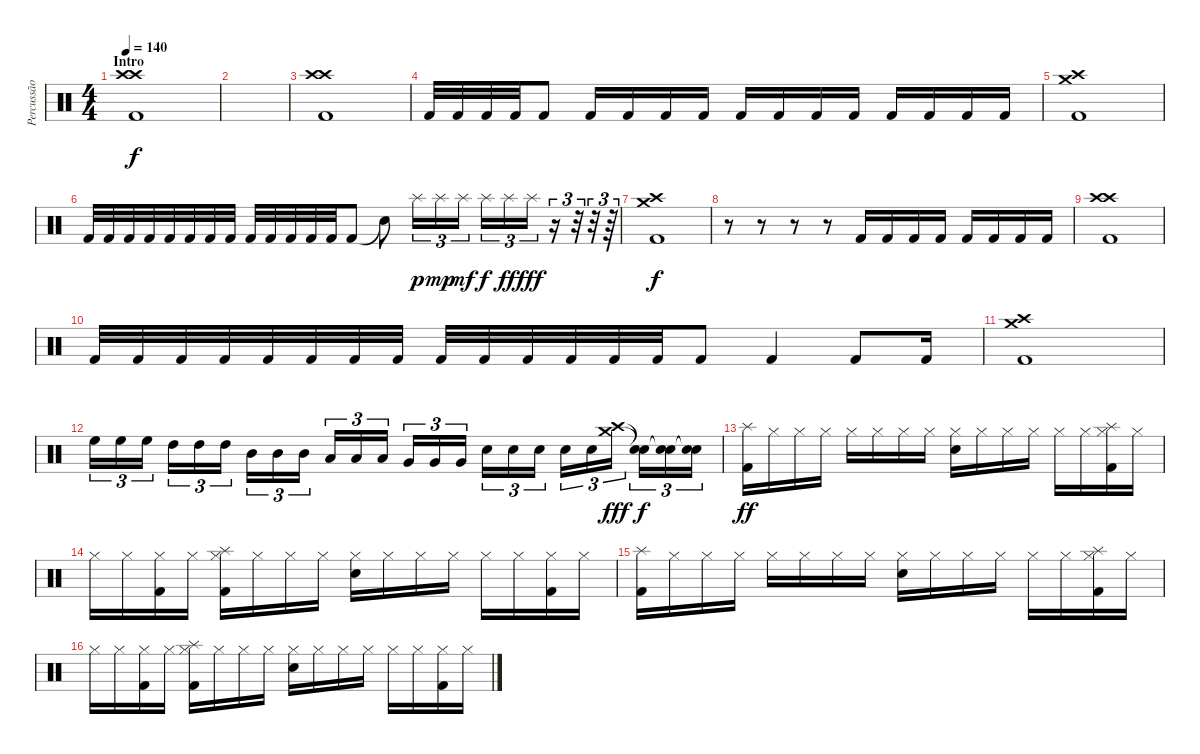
\track ("Percussão (Lucas)" "Percussão ") {instrument percussion}
\staff {score}
\articulation defaults
\ts (4 4)
\section ("" "Intro")
\tempo 140
\clef neutral
\ks c
("Crash high (hit)" "Crash high (hit)" "Kick (hit) 2").1{dy f} |
|
("Crash high (hit)" "Crash high (hit)" "Kick (hit) 2").1 |
"Kick (hit) 2".32 "Kick (hit) 2".32 "Kick (hit) 2".32 "Kick (hit) 2".32 "Kick (hit) 2".8 "Kick (hit) 2".16 "Kick (hit) 2".16 "Kick (hit) 2".16 "Kick (hit) 2".16 "Kick (hit) 2".16 "Kick (hit) 2".16 "Kick (hit) 2".16 "Kick (hit) 2".16 "Kick (hit) 2".16 "Kick (hit) 2".16 "Kick (hit) 2".16 "Kick (hit) 2".16 |
("Crash high (hit)" "Crash medium (hit)" "Kick (hit) 2").1 |
"Kick (hit) 2".32 "Kick (hit) 2".32 "Kick (hit) 2".32 "Kick (hit) 2".32 "Kick (hit) 2".32 "Kick (hit) 2".32 "Kick (hit) 2".32 "Kick (hit) 2".32 "Kick (hit) 2".32 "Kick (hit) 2".32 "Kick (hit) 2".32 "Kick (hit) 2".32 "Kick (hit) 2".32 "Kick (hit) 2".8 "Snare (hit)"{t}.8 "Splash (hit)".16{tu (3 2) dy p} "Splash (hit)".16{tu (3 2) dy mp} "Splash (hit)".16{tu (3 2) dy mf} "Splash (hit)".16{tu (3 2) dy f} "Splash (hit)".16{tu (3 2) dy ff} "Splash (hit)".16{tu (3 2) dy fff} r.16{tu (3 2)} r.32{tu (3 2)} r.32{tu (3 2)} r.64{tu (3 2)} |
("Crash high (hit)" "Crash medium (hit)" "Kick (hit) 2").1{dy f} |
r.8 r.8 r.8 r.8 "Kick (hit) 2".16 "Kick (hit) 2".16 "Kick (hit) 2".16 "Kick (hit) 2".16 "Kick (hit) 2".16 "Kick (hit) 2".16 "Kick (hit) 2".16 "Kick (hit) 2".16 |
("Crash high (hit)" "Crash high (hit)" "Kick (hit) 2").1 |
"Kick (hit) 2".32 "Kick (hit) 2".32 "Kick (hit) 2".32 "Kick (hit) 2".32 "Kick (hit) 2".32 "Kick (hit) 2".32 "Kick (hit) 2".32 "Kick (hit) 2".32 "Kick (hit) 2".32 "Kick (hit) 2".32 "Kick (hit) 2".32 "Kick (hit) 2".32 "Kick (hit) 2".32 "Kick (hit) 2".32 "Kick (hit) 2".8 "Kick (hit) 2".4 "Kick (hit) 2".8 "Kick (hit) 2".16 |
("Crash high (hit)" "Crash medium (hit)" "Kick (hit) 2").1 |
"High Floor Tom (hit)".16{tu (3 2)} "High Floor Tom (hit)".16{tu (3 2)} "High Floor Tom (hit)".16{tu (3 2)} "High Tom (hit)".16{tu (3 2)} "High Tom (hit)".16{tu (3 2)} "High Tom (hit)".16{tu (3 2)} "Mid Tom (hit)".16{tu (3 2)} "Mid Tom (hit)".16{tu (3 2)} "Mid Tom (hit)".16{tu (3 2)} "Low Tom (hit)".16{tu (3 2)} "Low Tom (hit)".16{tu (3 2)} "Low Tom (hit)".16{tu (3 2)} "Very Low Tom (hit)".16{tu (3 2)} "Very Low Tom (hit)".16{tu (3 2)} "Very Low Tom (hit)".16{tu (3 2)} "Electric Snare (hit)".16{tu (3 2)} "Electric Snare (hit)".16{tu (3 2)} "Electric Snare (hit)".16{tu (3 2)} "Electric Snare (hit)".16{tu (3 2)} "Electric Snare (hit)".16{tu (3 2)} ("Crash high (hit)" "Crash medium (hit)").16{tu (3 2) dy fff} ("Snare (hit)"{t} "Snare (hit)"{t}).16{tu (3 2) dy f} ("Snare (hit)"{t} "Snare (hit)"{t}).16{tu (3 2)} ("Snare (hit)"{t} "Snare (hit)"{t}).16{tu (3 2)} |
("Kick (hit) 2" "Splash (hit)").16{dy ff} "Hi-Hat (closed)".16 "Hi-Hat (closed)".16 "Hi-Hat (closed)".16 "Hi-Hat (closed)".16 "Hi-Hat (closed)".16 "Hi-Hat (closed)".16 "Hi-Hat (closed)".16 ("Electric Snare (hit)" "Hi-Hat (closed)").16 "Hi-Hat (closed)".16 "Hi-Hat (closed)".16 "Hi-Hat (closed)".16 "Hi-Hat (closed)".16 "Hi-Hat (closed)".16 ("Kick (hit) 2" "Hi-Hat (closed)" "Splash (hit)").16 "Hi-Hat (closed)".16 |
"Hi-Hat (closed)".16 "Hi-Hat (closed)".16 ("Kick (hit) 2" "Hi-Hat (closed)").16 "Hi-Hat (closed)".16 ("Kick (hit) 2" "Hi-Hat (closed)" "Splash (hit)").16 "Hi-Hat (closed)".16 "Hi-Hat (closed)".16 "Hi-Hat (closed)".16 ("Electric Snare (hit)" "Hi-Hat (closed)").16 "Hi-Hat (closed)".16 "Hi-Hat (closed)".16 "Hi-Hat (closed)".16 "Hi-Hat (closed)".16 "Hi-Hat (closed)".16 ("Kick (hit) 2" "Hi-Hat (closed)").16 "Hi-Hat (closed)".16 |
("Kick (hit) 2" "Splash (hit)").16 "Hi-Hat (closed)".16 "Hi-Hat (closed)".16 "Hi-Hat (closed)".16 "Hi-Hat (closed)".16 "Hi-Hat (closed)".16 "Hi-Hat (closed)".16 "Hi-Hat (closed)".16 ("Electric Snare (hit)" "Hi-Hat (closed)").16 "Hi-Hat (closed)".16 "Hi-Hat (closed)".16 "Hi-Hat (closed)".16 "Hi-Hat (closed)".16 "Hi-Hat (closed)".16 ("Kick (hit) 2" "Hi-Hat (closed)" "Splash (hit)").16 "Hi-Hat (closed)".16 |
"Hi-Hat (closed)".16 "Hi-Hat (closed)".16 ("Kick (hit) 2" "Hi-Hat (closed)").16 "Hi-Hat (closed)".16 ("Kick (hit) 2" "Hi-Hat (closed)" "Splash (hit)").16 "Hi-Hat (closed)".16 "Hi-Hat (closed)".16 "Hi-Hat (closed)".16 ("Electric Snare (hit)" "Hi-Hat (closed)").16 "Hi-Hat (closed)".16 "Hi-Hat (closed)".16 "Hi-Hat (closed)".16 "Hi-Hat (closed)".16 "Hi-Hat (closed)".16 ("Kick (hit) 2" "Hi-Hat (closed)").16 "Hi-Hat (closed)".16
